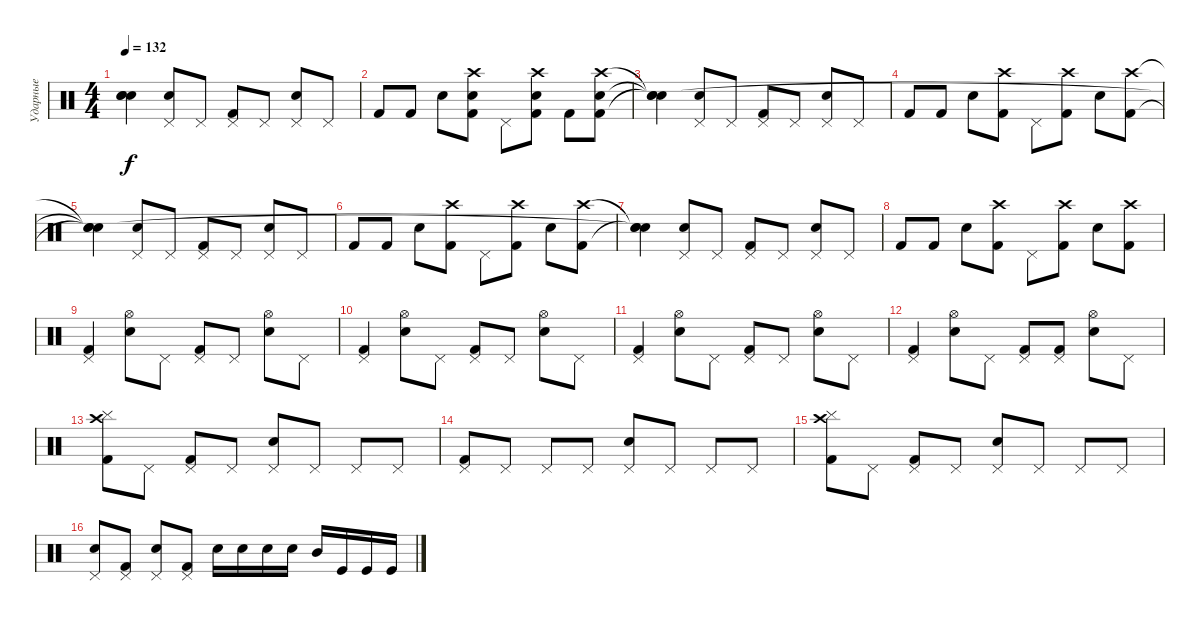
\track ("Ударные" "Ударные") {instrument percussion}
\staff {score}
\articulation defaults
\ts (4 4)
\tempo 132
\clef neutral
\ks c
("Snare (hit)"{t} "Snare (hit)"{t} "Snare (hit)"{t}).4{dy f} ("Pedal Hi-Hat (hit)" "Electric Snare (hit)").8 "Pedal Hi-Hat (hit)".8 ("Pedal Hi-Hat (hit)" "Kick (hit) 2").8 "Pedal Hi-Hat (hit)".8 ("Pedal Hi-Hat (hit)" "Electric Snare (hit)").8 "Pedal Hi-Hat (hit)".8 |
"Kick (hit) 2".8 "Kick (hit) 2".8 "Electric Snare (hit)".8 ("Electric Snare (hit)" "Crash high (hit)" "Kick (hit) 2").8 "Pedal Hi-Hat (hit)".8 ("Electric Snare (hit)" "Crash high (hit)" "Kick (hit) 2").8 "Kick (hit) 2".8 ("Kick (hit) 2" "Crash high (hit)" "Electric Snare (hit)").8 |
("Snare (hit)"{t} "Snare (hit)"{t} "Snare (hit)"{t}).4 ("Pedal Hi-Hat (hit)" "Electric Snare (hit)").8 "Pedal Hi-Hat (hit)".8 ("Pedal Hi-Hat (hit)" "Kick (hit) 2").8 "Pedal Hi-Hat (hit)".8 ("Pedal Hi-Hat (hit)" "Electric Snare (hit)").8 "Pedal Hi-Hat (hit)".8 |
"Kick (hit) 2".8 "Kick (hit) 2".8 "Electric Snare (hit)".8 ("Kick (hit) 2" "Crash high (hit)").8 "Pedal Hi-Hat (hit)".8 ("Kick (hit) 2" "Crash high (hit)").8 "Electric Snare (hit)".8 ("Kick (hit) 2" "Crash high (hit)").8 |
("Snare (hit)"{t} "Snare (hit)"{t} "Snare (hit)"{t}).4 ("Pedal Hi-Hat (hit)" "Electric Snare (hit)").8 "Pedal Hi-Hat (hit)".8 ("Pedal Hi-Hat (hit)" "Kick (hit) 2").8 "Pedal Hi-Hat (hit)".8 ("Pedal Hi-Hat (hit)" "Electric Snare (hit)").8 "Pedal Hi-Hat (hit)".8 |
"Kick (hit) 2".8 "Kick (hit) 2".8 "Electric Snare (hit)".8 ("Kick (hit) 2" "Crash high (hit)").8 "Pedal Hi-Hat (hit)".8 ("Kick (hit) 2" "Crash high (hit)").8 "Electric Snare (hit)".8 ("Kick (hit) 2" "Crash high (hit)").8 |
("Snare (hit)"{t} "Snare (hit)"{t} "Snare (hit)"{t}).4 ("Pedal Hi-Hat (hit)" "Electric Snare (hit)").8 "Pedal Hi-Hat (hit)".8 ("Pedal Hi-Hat (hit)" "Kick (hit) 2").8 "Pedal Hi-Hat (hit)".8 ("Pedal Hi-Hat (hit)" "Electric Snare (hit)").8 "Pedal Hi-Hat (hit)".8 |
"Kick (hit) 2".8 "Kick (hit) 2".8 "Electric Snare (hit)".8 ("Kick (hit) 2" "Crash high (hit)").8 "Pedal Hi-Hat (hit)".8 ("Kick (hit) 2" "Crash high (hit)").8 "Electric Snare (hit)".8 ("Kick (hit) 2" "Crash high (hit)").8 |
("Pedal Hi-Hat (hit)" "Kick (hit) 2").4 ("Hi-Hat (open)" "Electric Snare (hit)").8 "Pedal Hi-Hat (hit)".8 ("Kick (hit) 2" "Pedal Hi-Hat (hit)").8 "Pedal Hi-Hat (hit)".8 ("Electric Snare (hit)" "Hi-Hat (open)").8 "Pedal Hi-Hat (hit)".8 |
("Pedal Hi-Hat (hit)" "Kick (hit) 2").4 ("Hi-Hat (open)" "Electric Snare (hit)").8 "Pedal Hi-Hat (hit)".8 ("Kick (hit) 2" "Pedal Hi-Hat (hit)").8 "Pedal Hi-Hat (hit)".8 ("Electric Snare (hit)" "Hi-Hat (open)").8 "Pedal Hi-Hat (hit)".8 |
("Pedal Hi-Hat (hit)" "Kick (hit) 2").4 ("Hi-Hat (open)" "Electric Snare (hit)").8 "Pedal Hi-Hat (hit)".8 ("Kick (hit) 2" "Pedal Hi-Hat (hit)").8 "Pedal Hi-Hat (hit)".8 ("Electric Snare (hit)" "Hi-Hat (open)").8 "Pedal Hi-Hat (hit)".8 |
("Kick (hit) 2" "Pedal Hi-Hat (hit)").4 ("Hi-Hat (open)" "Electric Snare (hit)").8 "Pedal Hi-Hat (hit)".8 ("Kick (hit) 2" "Pedal Hi-Hat (hit)").8 ("Kick (hit) 2" "Pedal Hi-Hat (hit)").8 ("Electric Snare (hit)" "Hi-Hat (open)").8 "Pedal Hi-Hat (hit)".8 |
("Kick (hit) 2" "Crash high (hit)" "Cymbal (hit)").8 "Pedal Hi-Hat (hit)".8 ("Pedal Hi-Hat (hit)" "Kick (hit) 2").8 "Pedal Hi-Hat (hit)".8 ("Pedal Hi-Hat (hit)" "Electric Snare (hit)").8 "Pedal Hi-Hat (hit)".8 "Pedal Hi-Hat (hit)".8 "Pedal Hi-Hat (hit)".8 |
("Pedal Hi-Hat (hit)" "Kick (hit) 2").8 "Pedal Hi-Hat (hit)".8 "Pedal Hi-Hat (hit)".8 "Pedal Hi-Hat (hit)".8 ("Pedal Hi-Hat (hit)" "Electric Snare (hit)").8 "Pedal Hi-Hat (hit)".8 "Pedal Hi-Hat (hit)".8 "Pedal Hi-Hat (hit)".8 |
("Kick (hit) 2" "Crash high (hit)" "Cymbal (hit)").8 "Pedal Hi-Hat (hit)".8 ("Pedal Hi-Hat (hit)" "Kick (hit) 2").8 "Pedal Hi-Hat (hit)".8 ("Pedal Hi-Hat (hit)" "Electric Snare (hit)").8 "Pedal Hi-Hat (hit)".8 "Pedal Hi-Hat (hit)".8 "Pedal Hi-Hat (hit)".8 |
("Pedal Hi-Hat (hit)" "Electric Snare (hit)").8 ("Pedal Hi-Hat (hit)" "Kick (hit) 2").8 ("Pedal Hi-Hat (hit)" "Electric Snare (hit)").8 ("Kick (hit) 2" "Pedal Hi-Hat (hit)").8 "Electric Snare (hit)".16 "Snare (hit) 2".16 "Snare (hit) 2".16 "Snare (hit) 2".16 "Mid Tom (hit)".16 "Kick (hit)".16 "Kick (hit)".16 "Kick (hit)".16
